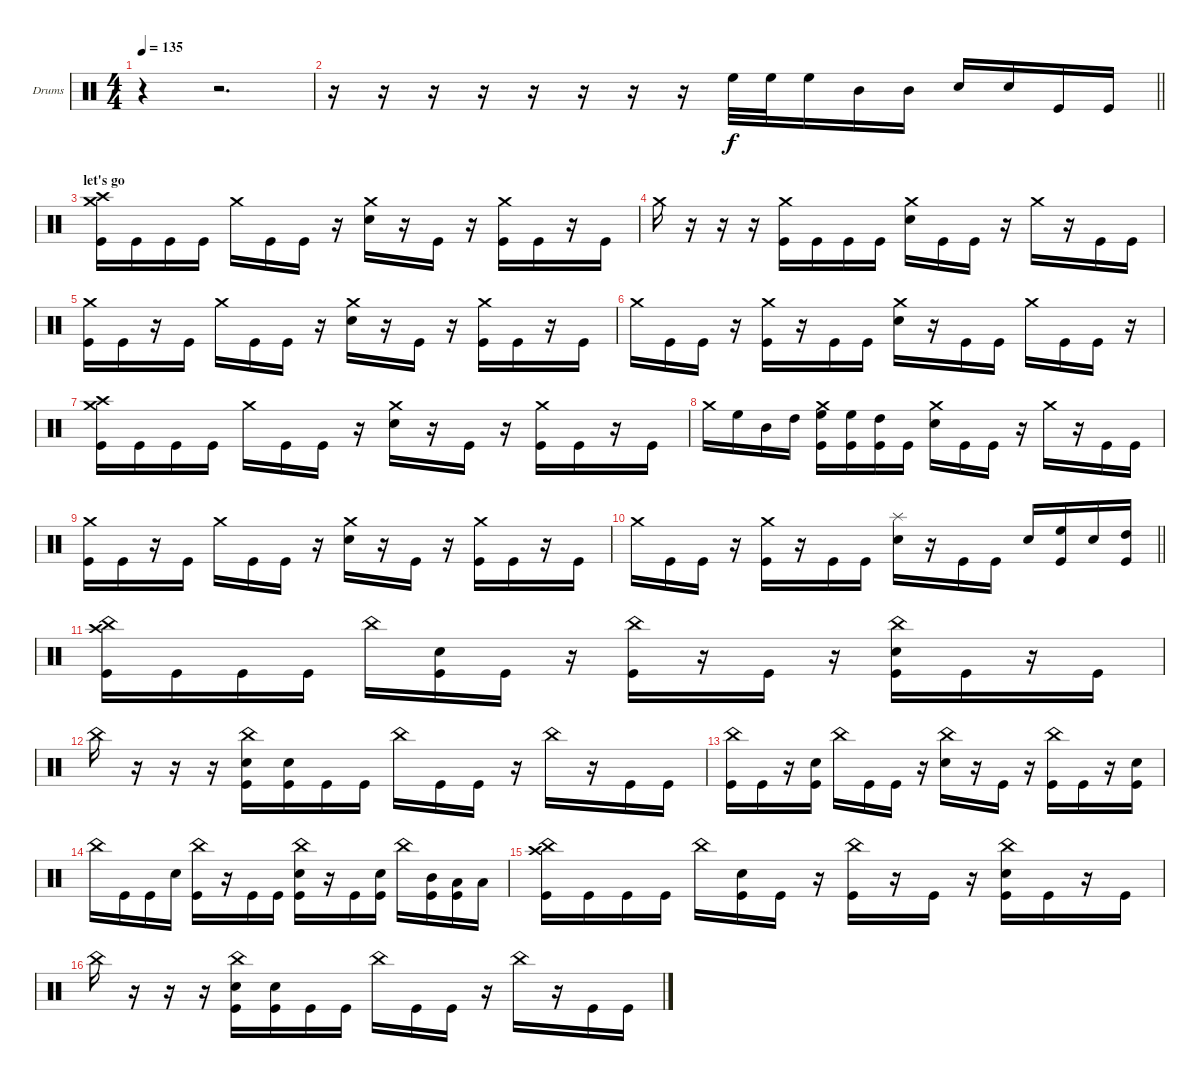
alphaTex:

\bracketExtendMode groupsimilarinstruments
\firstSystemTrackNameOrientation horizontal
\otherSystemsTrackNameOrientation horizontal
\track ("Drumkit" "Drums") {instrument percussion}
\staff {score}
\articulation defaults
\ts (4 4)
\tempo 135
\clef neutral
\ks c
r.4{dy f} r.2{d} |
\barLineRight lightlight
r.16 r.16 r.16 r.16 r.16 r.16 r.16 r.16 "High Floor Tom (hit)".32 "High Floor Tom (hit)".32 "High Floor Tom (hit)".16 "Mid Tom (hit)".16 "Mid Tom (hit)".16 "Snare (hit) 2".16 "Snare (hit) 2".16 "Kick (hit)".16 "Kick (hit)".16 |
\section ("" "let's go")
("Crash medium (hit)" "Crash high (hit)" "Kick (hit)").16 "Kick (hit)".16 "Kick (hit)".16 "Kick (hit)".16 "Crash medium (hit)".16 "Kick (hit)".16 "Kick (hit)".16 r.16 ("Crash medium (hit)" "Snare (hit) 2").16 r.16 "Kick (hit)".16 r.16 ("Crash medium (hit)" "Kick (hit)").16 "Kick (hit)".16 r.16 "Kick (hit)".16 |
"Crash medium (hit)".16 r.16 r.16 r.16 ("Crash medium (hit)" "Kick (hit)").16 "Kick (hit)".16 "Kick (hit)".16 "Kick (hit)".16 ("Crash medium (hit)" "Snare (hit) 2").16 "Kick (hit)".16 "Kick (hit)".16 r.16 "Crash medium (hit)".16 r.16 "Kick (hit)".16 "Kick (hit)".16 |
("Crash medium (hit)" "Kick (hit)").16 "Kick (hit)".16 r.16 "Kick (hit)".16 "Crash medium (hit)".16 "Kick (hit)".16 "Kick (hit)".16 r.16 ("Crash medium (hit)" "Snare (hit) 2").16 r.16 "Kick (hit)".16 r.16 ("Crash medium (hit)" "Kick (hit)").16 "Kick (hit)".16 r.16 "Kick (hit)".16 |
"Crash medium (hit)".16 "Kick (hit)".16 "Kick (hit)".16 r.16 ("Crash medium (hit)" "Kick (hit)").16 r.16 "Kick (hit)".16 "Kick (hit)".16 ("Crash medium (hit)" "Snare (hit) 2").16 r.16 "Kick (hit)".16 "Kick (hit)".16 "Crash medium (hit)".16 "Kick (hit)".16 "Kick (hit)".16 r.16 |
("Crash medium (hit)" "Crash high (hit)" "Kick (hit)").16 "Kick (hit)".16 "Kick (hit)".16 "Kick (hit)".16 "Crash medium (hit)".16 "Kick (hit)".16 "Kick (hit)".16 r.16 ("Crash medium (hit)" "Snare (hit) 2").16 r.16 "Kick (hit)".16 r.16 ("Crash medium (hit)" "Kick (hit)").16 "Kick (hit)".16 r.16 "Kick (hit)".16 |
"Crash medium (hit)".16 "High Floor Tom (hit)".16 "Mid Tom (hit)".16 "High Tom (hit)".16 ("Crash medium (hit)" "High Floor Tom (hit)" "Kick (hit)").16 ("High Floor Tom (hit)" "Kick (hit)").16 ("High Tom (hit)" "Kick (hit)").16 "Kick (hit)".16 ("Crash medium (hit)" "Snare (hit) 2").16 "Kick (hit)".16 "Kick (hit)".16 r.16 "Crash medium (hit)".16 r.16 "Kick (hit)".16 "Kick (hit)".16 |
("Crash medium (hit)" "Kick (hit)").16 "Kick (hit)".16 r.16 "Kick (hit)".16 "Crash medium (hit)".16 "Kick (hit)".16 "Kick (hit)".16 r.16 ("Crash medium (hit)" "Snare (hit) 2").16 r.16 "Kick (hit)".16 r.16 ("Crash medium (hit)" "Kick (hit)").16 "Kick (hit)".16 r.16 "Kick (hit)".16 |
\barLineRight lightlight "Crash medium (hit)".16 "Kick (hit)".16 "Kick (hit)".16
r.16 ("Crash medium (hit)" "Kick (hit)").16 r.16 "Kick (hit)".16 "Kick (hit)".16 ("Splash (hit)" "Snare (hit) 2").16 r.16 "Kick (hit)".16 "Kick (hit)".16 "Snare (hit) 2".16 ("High Floor Tom (hit)" "Kick (hit)").16 "Snare (hit) 2".16 ("High Tom (hit)" "Kick (hit)").16 |
("China (hit)" "Crash high (hit)" "Kick (hit)").16 "Kick (hit)".16 "Kick (hit)".16 "Kick (hit)".16 "China (hit)".16 ("Snare (hit) 2" "Kick (hit)").16 "Kick (hit)".16 r.16 ("China (hit)" "Kick (hit)").16 r.16 "Kick (hit)".16 r.16 ("China (hit)" "Snare (hit) 2" "Kick (hit)").16 "Kick (hit)".16 r.16 "Kick (hit)".16 |
"China (hit)".16 r.16 r.16 r.16 ("China (hit)" "Snare (hit) 2" "Kick (hit)").16 ("Snare (hit) 2" "Kick (hit)").16 "Kick (hit)".16 "Kick (hit)".16 "China (hit)".16 "Kick (hit)".16 "Kick (hit)".16 r.16 "China (hit)".16 r.16 "Kick (hit)".16 "Kick (hit)".16 |
("China (hit)" "Kick (hit)").16 "Kick (hit)".16 r.16 ("Snare (hit) 2" "Kick (hit)").16 "China (hit)".16 "Kick (hit)".16 "Kick (hit)".16 r.16 ("China (hit)" "Snare (hit) 2").16 r.16 "Kick (hit)".16 r.16 ("China (hit)" "Kick (hit)").16 "Kick (hit)".16 r.16 ("Snare (hit) 2" "Kick (hit)").16 |
"China (hit)".16 "Kick (hit)".16 "Kick (hit)".16 "Snare (hit) 2".16 ("China (hit)" "Kick (hit)").16 r.16 "Kick (hit)".16 "Kick (hit)".16 ("China (hit)" "Snare (hit) 2" "Kick (hit)").16 r.16 "Kick (hit)".16 ("Snare (hit) 2" "Kick (hit)").16 "China (hit)".16 ("Mid Tom (hit)" "Kick (hit)").16 ("Low Tom (hit)" "Kick (hit)").16 "Low Tom (hit)".16 |
("China (hit)" "Crash high (hit)" "Kick (hit)").16 "Kick (hit)".16 "Kick (hit)".16 "Kick (hit)".16 "China (hit)".16 ("Snare (hit) 2" "Kick (hit)").16 "Kick (hit)".16 r.16 ("China (hit)" "Kick (hit)").16 r.16 "Kick (hit)".16 r.16 ("China (hit)" "Snare (hit) 2" "Kick (hit)").16 "Kick (hit)".16 r.16 "Kick (hit)".16 |
"China (hit)".16 r.16 r.16 r.16 ("China (hit)" "Snare (hit) 2" "Kick (hit)").16 ("Snare (hit) 2" "Kick (hit)").16 "Kick (hit)".16 "Kick (hit)".16 "China (hit)".16 "Kick (hit)".16 "Kick (hit)".16 r.16 "China (hit)".16 r.16 "Kick (hit)".16 "Kick (hit)".16
